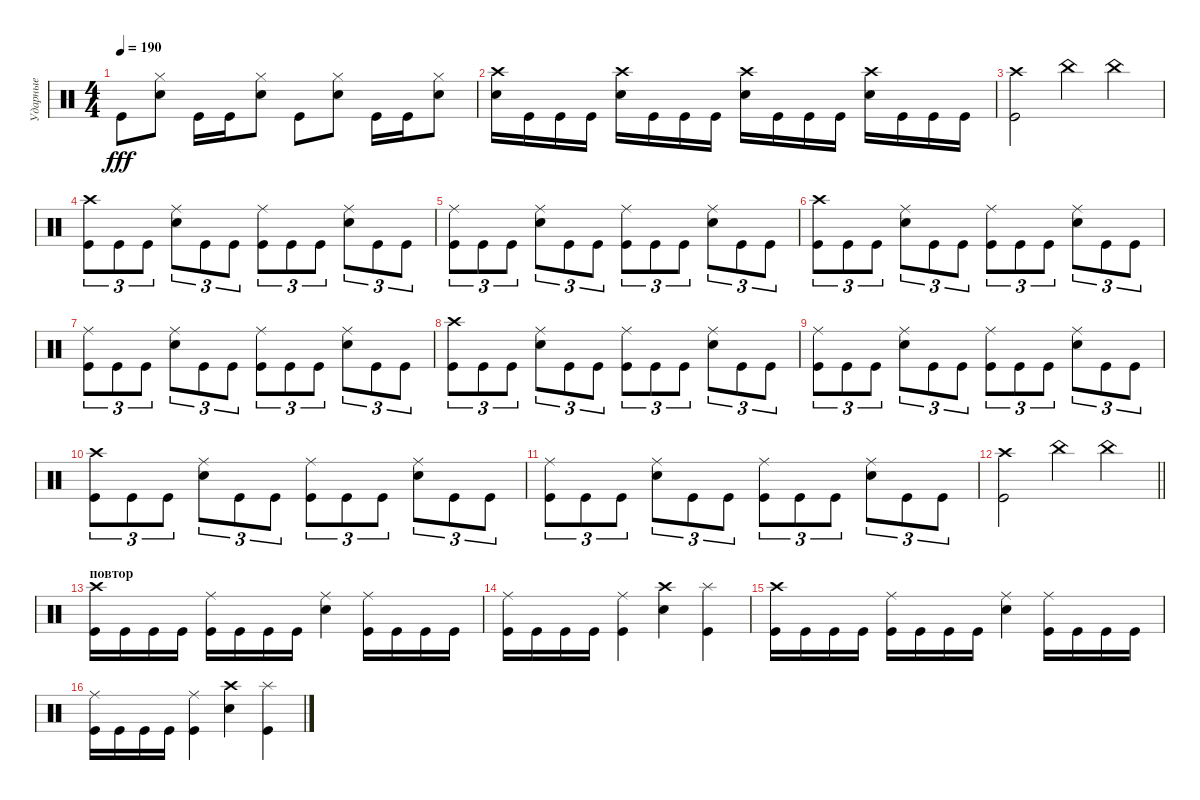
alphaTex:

\track ("Ударные" "Ударные") {instrument percussion}
\staff {score}
\articulation defaults
\ts (4 4)
\tempo 190
\clef neutral
\ks c "Kick (hit)".8{dy fff}
("Snare (hit) 2" "Hi-Hat (closed)").8 "Kick (hit)".16 "Kick (hit)".16 ("Snare (hit) 2" "Hi-Hat (closed)").8 "Kick (hit)".8 ("Snare (hit) 2" "Hi-Hat (closed)").8 "Kick (hit)".16 "Kick (hit)".16 ("Snare (hit) 2" "Hi-Hat (closed)").8 |
("Snare (hit) 2" "Crash high (hit)").16 "Kick (hit)".16 "Kick (hit)".16 "Kick (hit)".16 ("Crash high (hit)" "Snare (hit) 2").16 "Kick (hit)".16 "Kick (hit)".16 "Kick (hit)".16 ("Snare (hit) 2" "Crash high (hit)").16 "Kick (hit)".16 "Kick (hit)".16 "Kick (hit)".16 ("Crash high (hit)" "Snare (hit) 2").16 "Kick (hit)".16 "Kick (hit)".16 "Kick (hit)".16 |
("Crash high (hit)" "Kick (hit)").2 "China (hit)".4 "China (hit)".4 |
("Crash high (hit)" "Kick (hit)").8{tu (3 2)} "Kick (hit)".8{tu (3 2)} "Kick (hit)".8{tu (3 2)} ("Ride (middle)" "Snare (hit) 2").8{tu (3 2)} "Kick (hit)".8{tu (3 2)} "Kick (hit)".8{tu (3 2)} ("Ride (middle)" "Kick (hit)").8{tu (3 2)} "Kick (hit)".8{tu (3 2)} "Kick (hit)".8{tu (3 2)} ("Ride (middle)" "Snare (hit) 2").8{tu (3 2)} "Kick (hit)".8{tu (3 2)} "Kick (hit)".8{tu (3 2)} |
("Ride (middle)" "Kick (hit)").8{tu (3 2)} "Kick (hit)".8{tu (3 2)} "Kick (hit)".8{tu (3 2)} ("Ride (middle)" "Snare (hit) 2").8{tu (3 2)} "Kick (hit)".8{tu (3 2)} "Kick (hit)".8{tu (3 2)} ("Ride (middle)" "Kick (hit)").8{tu (3 2)} "Kick (hit)".8{tu (3 2)} "Kick (hit)".8{tu (3 2)} ("Ride (middle)" "Snare (hit) 2").8{tu (3 2)} "Kick (hit)".8{tu (3 2)} "Kick (hit)".8{tu (3 2)} |
("Crash high (hit)" "Kick (hit)").8{tu (3 2)} "Kick (hit)".8{tu (3 2)} "Kick (hit)".8{tu (3 2)} ("Ride (middle)" "Snare (hit) 2").8{tu (3 2)} "Kick (hit)".8{tu (3 2)} "Kick (hit)".8{tu (3 2)} ("Ride (middle)" "Kick (hit)").8{tu (3 2)} "Kick (hit)".8{tu (3 2)} "Kick (hit)".8{tu (3 2)} ("Ride (middle)" "Snare (hit) 2").8{tu (3 2)} "Kick (hit)".8{tu (3 2)} "Kick (hit)".8{tu (3 2)} |
("Ride (middle)" "Kick (hit)").8{tu (3 2)} "Kick (hit)".8{tu (3 2)} "Kick (hit)".8{tu (3 2)} ("Ride (middle)" "Snare (hit) 2").8{tu (3 2)} "Kick (hit)".8{tu (3 2)} "Kick (hit)".8{tu (3 2)} ("Ride (middle)" "Kick (hit)").8{tu (3 2)} "Kick (hit)".8{tu (3 2)} "Kick (hit)".8{tu (3 2)} ("Ride (middle)" "Snare (hit) 2").8{tu (3 2)} "Kick (hit)".8{tu (3 2)} "Kick (hit)".8{tu (3 2)} |
("Crash high (hit)" "Kick (hit)").8{tu (3 2)} "Kick (hit)".8{tu (3 2)} "Kick (hit)".8{tu (3 2)} ("Ride (middle)" "Snare (hit) 2").8{tu (3 2)} "Kick (hit)".8{tu (3 2)} "Kick (hit)".8{tu (3 2)} ("Ride (middle)" "Kick (hit)").8{tu (3 2)} "Kick (hit)".8{tu (3 2)} "Kick (hit)".8{tu (3 2)} ("Ride (middle)" "Snare (hit) 2").8{tu (3 2)} "Kick (hit)".8{tu (3 2)} "Kick (hit)".8{tu (3 2)} |
("Ride (middle)" "Kick (hit)").8{tu (3 2)} "Kick (hit)".8{tu (3 2)} "Kick (hit)".8{tu (3 2)} ("Ride (middle)" "Snare (hit) 2").8{tu (3 2)} "Kick (hit)".8{tu (3 2)} "Kick (hit)".8{tu (3 2)} ("Ride (middle)" "Kick (hit)").8{tu (3 2)} "Kick (hit)".8{tu (3 2)} "Kick (hit)".8{tu (3 2)} ("Ride (middle)" "Snare (hit) 2").8{tu (3 2)} "Kick (hit)".8{tu (3 2)} "Kick (hit)".8{tu (3 2)} |
("Crash high (hit)" "Kick (hit)").8{tu (3 2)} "Kick (hit)".8{tu (3 2)} "Kick (hit)".8{tu (3 2)} ("Ride (middle)" "Snare (hit) 2").8{tu (3 2)} "Kick (hit)".8{tu (3 2)} "Kick (hit)".8{tu (3 2)} ("Ride (middle)" "Kick (hit)").8{tu (3 2)} "Kick (hit)".8{tu (3 2)} "Kick (hit)".8{tu (3 2)} ("Ride (middle)" "Snare (hit) 2").8{tu (3 2)} "Kick (hit)".8{tu (3 2)} "Kick (hit)".8{tu (3 2)} |
("Ride (middle)" "Kick (hit)").8{tu (3 2)} "Kick (hit)".8{tu (3 2)} "Kick (hit)".8{tu (3 2)} ("Ride (middle)" "Snare (hit) 2").8{tu (3 2)} "Kick (hit)".8{tu (3 2)} "Kick (hit)".8{tu (3 2)} ("Ride (middle)" "Kick (hit)").8{tu (3 2)} "Kick (hit)".8{tu (3 2)} "Kick (hit)".8{tu (3 2)} ("Ride (middle)" "Snare (hit) 2").8{tu (3 2)} "Kick (hit)".8{tu (3 2)} "Kick (hit)".8{tu (3 2)} |
\barLineRight lightlight
("Crash high (hit)" "Kick (hit)").2 "China (hit)".4 "China (hit)".4 |
\section ("" "повтор")
("Crash high (hit)" "Kick (hit)").16 "Kick (hit)".16 "Kick (hit)".16 "Kick (hit)".16 ("Ride (middle)" "Kick (hit)").16 "Kick (hit)".16 "Kick (hit)".16 "Kick (hit)".16 ("Ride (middle)" "Snare (hit) 2").4 ("Ride (middle)" "Kick (hit)").16 "Kick (hit)".16 "Kick (hit)".16 "Kick (hit)".16 |
("Ride (middle)" "Kick (hit)").16 "Kick (hit)".16 "Kick (hit)".16 "Kick (hit)".16 ("Ride (middle)" "Kick (hit)").4 ("Crash high (hit)" "Snare (hit) 2").4 ("Splash (hit)" "Kick (hit)").4 |
("Crash high (hit)" "Kick (hit)").16 "Kick (hit)".16 "Kick (hit)".16 "Kick (hit)".16 ("Ride (middle)" "Kick (hit)").16 "Kick (hit)".16 "Kick (hit)".16 "Kick (hit)".16 ("Ride (middle)" "Snare (hit) 2").4 ("Ride (middle)" "Kick (hit)").16 "Kick (hit)".16 "Kick (hit)".16 "Kick (hit)".16 |
("Ride (middle)" "Kick (hit)").16 "Kick (hit)".16 "Kick (hit)".16 "Kick (hit)".16 ("Ride (middle)" "Kick (hit)").4 ("Crash high (hit)" "Snare (hit) 2").4 ("Splash (hit)" "Kick (hit)").4
